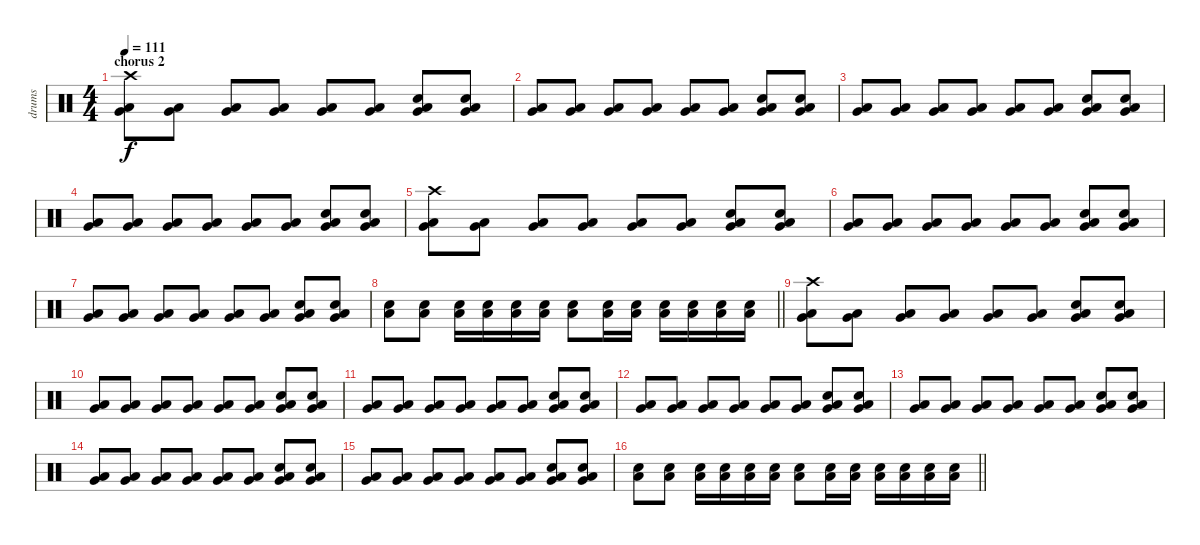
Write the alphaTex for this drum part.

\track ("drums" "drums") {instrument percussion}
\staff {score}
\articulation defaults
\ts (4 4)
\section ("" "chorus 2")
\tempo 111
\clef neutral
\ks c
("Very Low Tom (hit)" "Low Floor Tom (hit)" "Crash high (hit)").8{dy f} ("Very Low Tom (hit)" "Low Floor Tom (hit)").8 ("Very Low Tom (hit)" "Low Floor Tom (hit)").8 ("Very Low Tom (hit)" "Low Floor Tom (hit)").8 ("Very Low Tom (hit)" "Low Floor Tom (hit)").8 ("Very Low Tom (hit)" "Low Floor Tom (hit)").8 ("Electric Snare (hit)" "Very Low Tom (hit)" "Low Floor Tom (hit)").8 ("Electric Snare (hit)" "Very Low Tom (hit)" "Low Floor Tom (hit)").8 |
("Very Low Tom (hit)" "Low Floor Tom (hit)").8 ("Very Low Tom (hit)" "Low Floor Tom (hit)").8 ("Very Low Tom (hit)" "Low Floor Tom (hit)").8 ("Very Low Tom (hit)" "Low Floor Tom (hit)").8 ("Very Low Tom (hit)" "Low Floor Tom (hit)").8 ("Very Low Tom (hit)" "Low Floor Tom (hit)").8 ("Electric Snare (hit)" "Very Low Tom (hit)" "Low Floor Tom (hit)").8 ("Electric Snare (hit)" "Very Low Tom (hit)" "Low Floor Tom (hit)").8 |
("Very Low Tom (hit)" "Low Floor Tom (hit)").8 ("Very Low Tom (hit)" "Low Floor Tom (hit)").8 ("Very Low Tom (hit)" "Low Floor Tom (hit)").8 ("Very Low Tom (hit)" "Low Floor Tom (hit)").8 ("Very Low Tom (hit)" "Low Floor Tom (hit)").8 ("Very Low Tom (hit)" "Low Floor Tom (hit)").8 ("Electric Snare (hit)" "Very Low Tom (hit)" "Low Floor Tom (hit)").8 ("Electric Snare (hit)" "Very Low Tom (hit)" "Low Floor Tom (hit)").8 |
("Very Low Tom (hit)" "Low Floor Tom (hit)").8 ("Very Low Tom (hit)" "Low Floor Tom (hit)").8 ("Very Low Tom (hit)" "Low Floor Tom (hit)").8 ("Very Low Tom (hit)" "Low Floor Tom (hit)").8 ("Very Low Tom (hit)" "Low Floor Tom (hit)").8 ("Very Low Tom (hit)" "Low Floor Tom (hit)").8 ("Electric Snare (hit)" "Very Low Tom (hit)" "Low Floor Tom (hit)").8 ("Electric Snare (hit)" "Very Low Tom (hit)" "Low Floor Tom (hit)").8 |
("Very Low Tom (hit)" "Low Floor Tom (hit)" "Crash high (hit)").8 ("Very Low Tom (hit)" "Low Floor Tom (hit)").8 ("Very Low Tom (hit)" "Low Floor Tom (hit)").8 ("Very Low Tom (hit)" "Low Floor Tom (hit)").8 ("Very Low Tom (hit)" "Low Floor Tom (hit)").8 ("Very Low Tom (hit)" "Low Floor Tom (hit)").8 ("Electric Snare (hit)" "Very Low Tom (hit)" "Low Floor Tom (hit)").8 ("Electric Snare (hit)" "Very Low Tom (hit)" "Low Floor Tom (hit)").8 |
("Very Low Tom (hit)" "Low Floor Tom (hit)").8 ("Very Low Tom (hit)" "Low Floor Tom (hit)").8 ("Very Low Tom (hit)" "Low Floor Tom (hit)").8 ("Very Low Tom (hit)" "Low Floor Tom (hit)").8 ("Very Low Tom (hit)" "Low Floor Tom (hit)").8 ("Very Low Tom (hit)" "Low Floor Tom (hit)").8 ("Electric Snare (hit)" "Very Low Tom (hit)" "Low Floor Tom (hit)").8 ("Electric Snare (hit)" "Very Low Tom (hit)" "Low Floor Tom (hit)").8 |
("Very Low Tom (hit)" "Low Floor Tom (hit)").8 ("Very Low Tom (hit)" "Low Floor Tom (hit)").8 ("Very Low Tom (hit)" "Low Floor Tom (hit)").8 ("Very Low Tom (hit)" "Low Floor Tom (hit)").8 ("Very Low Tom (hit)" "Low Floor Tom (hit)").8 ("Very Low Tom (hit)" "Low Floor Tom (hit)").8 ("Electric Snare (hit)" "Very Low Tom (hit)" "Low Floor Tom (hit)").8 ("Electric Snare (hit)" "Very Low Tom (hit)" "Low Floor Tom (hit)").8 |
\barLineRight lightlight
("Electric Snare (hit)" "Low Floor Tom (hit)").8 ("Electric Snare (hit)" "Low Floor Tom (hit)").8 ("Electric Snare (hit)" "Low Floor Tom (hit)").16 ("Electric Snare (hit)" "Low Floor Tom (hit)").16 ("Electric Snare (hit)" "Low Floor Tom (hit)").16 ("Electric Snare (hit)" "Low Floor Tom (hit)").16 ("Electric Snare (hit)" "Low Floor Tom (hit)").8 ("Electric Snare (hit)" "Low Floor Tom (hit)").16 ("Electric Snare (hit)" "Low Floor Tom (hit)").16 ("Electric Snare (hit)" "Low Floor Tom (hit)").16 ("Electric Snare (hit)" "Low Floor Tom (hit)").16 ("Electric Snare (hit)" "Low Floor Tom (hit)").16 ("Electric Snare (hit)" "Low Floor Tom (hit)").16 |
("Very Low Tom (hit)" "Low Floor Tom (hit)" "Crash high (hit)").8 ("Very Low Tom (hit)" "Low Floor Tom (hit)").8 ("Very Low Tom (hit)" "Low Floor Tom (hit)").8 ("Very Low Tom (hit)" "Low Floor Tom (hit)").8 ("Very Low Tom (hit)" "Low Floor Tom (hit)").8 ("Very Low Tom (hit)" "Low Floor Tom (hit)").8 ("Electric Snare (hit)" "Very Low Tom (hit)" "Low Floor Tom (hit)").8 ("Electric Snare (hit)" "Very Low Tom (hit)" "Low Floor Tom (hit)").8 |
("Very Low Tom (hit)" "Low Floor Tom (hit)").8 ("Very Low Tom (hit)" "Low Floor Tom (hit)").8 ("Very Low Tom (hit)" "Low Floor Tom (hit)").8 ("Very Low Tom (hit)" "Low Floor Tom (hit)").8 ("Very Low Tom (hit)" "Low Floor Tom (hit)").8 ("Very Low Tom (hit)" "Low Floor Tom (hit)").8 ("Electric Snare (hit)" "Very Low Tom (hit)" "Low Floor Tom (hit)").8 ("Electric Snare (hit)" "Very Low Tom (hit)" "Low Floor Tom (hit)").8 |
("Very Low Tom (hit)" "Low Floor Tom (hit)").8 ("Very Low Tom (hit)" "Low Floor Tom (hit)").8 ("Very Low Tom (hit)" "Low Floor Tom (hit)").8 ("Very Low Tom (hit)" "Low Floor Tom (hit)").8 ("Very Low Tom (hit)" "Low Floor Tom (hit)").8 ("Very Low Tom (hit)" "Low Floor Tom (hit)").8 ("Electric Snare (hit)" "Very Low Tom (hit)" "Low Floor Tom (hit)").8 ("Electric Snare (hit)" "Very Low Tom (hit)" "Low Floor Tom (hit)").8 |
("Very Low Tom (hit)" "Low Floor Tom (hit)").8 ("Very Low Tom (hit)" "Low Floor Tom (hit)").8 ("Very Low Tom (hit)" "Low Floor Tom (hit)").8 ("Very Low Tom (hit)" "Low Floor Tom (hit)").8 ("Very Low Tom (hit)" "Low Floor Tom (hit)").8 ("Very Low Tom (hit)" "Low Floor Tom (hit)").8 ("Electric Snare (hit)" "Very Low Tom (hit)" "Low Floor Tom (hit)").8 ("Electric Snare (hit)" "Very Low Tom (hit)" "Low Floor Tom (hit)").8 |
("Very Low Tom (hit)" "Low Floor Tom (hit)").8 ("Very Low Tom (hit)" "Low Floor Tom (hit)").8 ("Very Low Tom (hit)" "Low Floor Tom (hit)").8 ("Very Low Tom (hit)" "Low Floor Tom (hit)").8 ("Very Low Tom (hit)" "Low Floor Tom (hit)").8 ("Very Low Tom (hit)" "Low Floor Tom (hit)").8 ("Electric Snare (hit)" "Very Low Tom (hit)" "Low Floor Tom (hit)").8 ("Electric Snare (hit)" "Very Low Tom (hit)" "Low Floor Tom (hit)").8 |
("Very Low Tom (hit)" "Low Floor Tom (hit)").8 ("Very Low Tom (hit)" "Low Floor Tom (hit)").8 ("Very Low Tom (hit)" "Low Floor Tom (hit)").8 ("Very Low Tom (hit)" "Low Floor Tom (hit)").8 ("Very Low Tom (hit)" "Low Floor Tom (hit)").8 ("Very Low Tom (hit)" "Low Floor Tom (hit)").8 ("Electric Snare (hit)" "Very Low Tom (hit)" "Low Floor Tom (hit)").8 ("Electric Snare (hit)" "Very Low Tom (hit)" "Low Floor Tom (hit)").8 |
("Very Low Tom (hit)" "Low Floor Tom (hit)").8 ("Very Low Tom (hit)" "Low Floor Tom (hit)").8 ("Very Low Tom (hit)" "Low Floor Tom (hit)").8 ("Very Low Tom (hit)" "Low Floor Tom (hit)").8 ("Very Low Tom (hit)" "Low Floor Tom (hit)").8 ("Very Low Tom (hit)" "Low Floor Tom (hit)").8 ("Electric Snare (hit)" "Very Low Tom (hit)" "Low Floor Tom (hit)").8 ("Electric Snare (hit)" "Very Low Tom (hit)" "Low Floor Tom (hit)").8 |
\barLineRight lightlight
("Electric Snare (hit)" "Low Floor Tom (hit)").8 ("Electric Snare (hit)" "Low Floor Tom (hit)").8 ("Electric Snare (hit)" "Low Floor Tom (hit)").16 ("Electric Snare (hit)" "Low Floor Tom (hit)").16 ("Electric Snare (hit)" "Low Floor Tom (hit)").16 ("Electric Snare (hit)" "Low Floor Tom (hit)").16 ("Electric Snare (hit)" "Low Floor Tom (hit)").8 ("Electric Snare (hit)" "Low Floor Tom (hit)").16 ("Electric Snare (hit)" "Low Floor Tom (hit)").16 ("Electric Snare (hit)" "Low Floor Tom (hit)").16 ("Electric Snare (hit)" "Low Floor Tom (hit)").16 ("Electric Snare (hit)" "Low Floor Tom (hit)").16 ("Electric Snare (hit)" "Low Floor Tom (hit)").16
